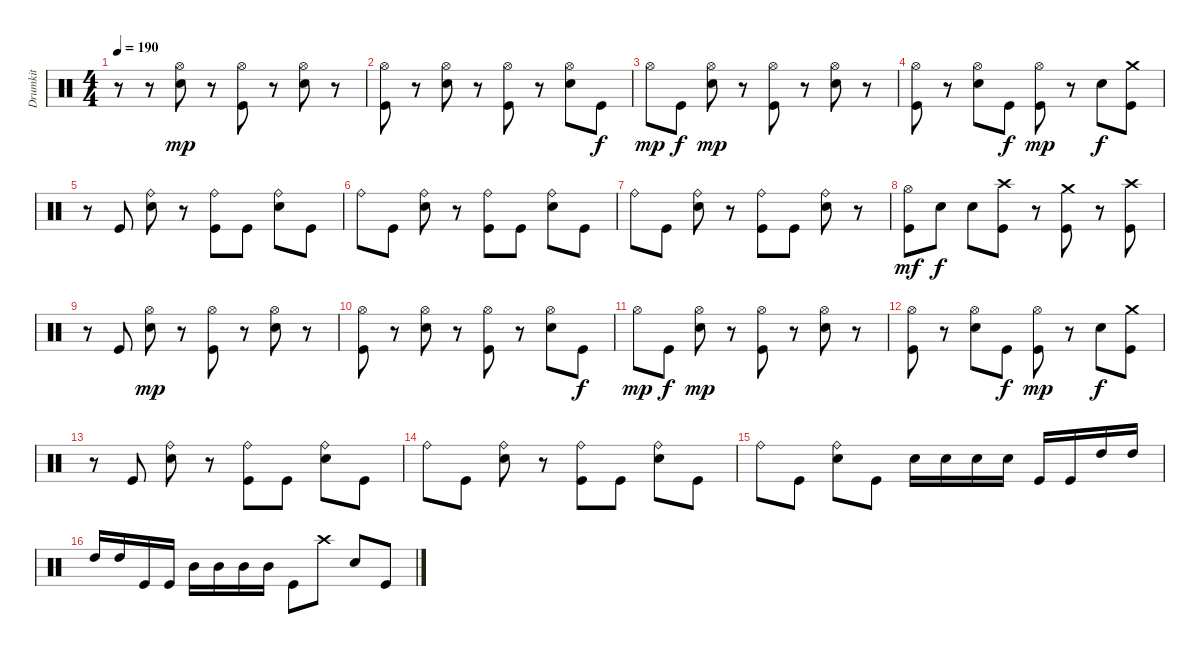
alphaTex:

\track ("Drumkit" "Drumkit") {instrument percussion}
\staff {score}
\articulation defaults
\ts (4 4)
\tempo 190
\clef neutral
\ks c
r.8{dy f} r.8 ("Hi-Hat (open)" "Snare (hit) 2").8{dy mp} r.8 ("Hi-Hat (open)" "Kick (hit)").8 r.8 ("Hi-Hat (open)" "Snare (hit) 2").8 r.8 |
("Hi-Hat (open)" "Kick (hit)").8 r.8 ("Hi-Hat (open)" "Snare (hit) 2").8 r.8 ("Hi-Hat (open)" "Kick (hit)").8 r.8 ("Hi-Hat (open)" "Snare (hit) 2").8 "Kick (hit)".8{dy f} |
"Hi-Hat (open)".8{dy mp} "Kick (hit)".8{dy f} ("Hi-Hat (open)" "Snare (hit) 2").8{dy mp} r.8 ("Hi-Hat (open)" "Kick (hit)").8 r.8 ("Hi-Hat (open)" "Snare (hit) 2").8 r.8 |
("Hi-Hat (open)" "Kick (hit)").8 r.8 ("Hi-Hat (open)" "Snare (hit) 2").8 "Kick (hit)".8{dy f} ("Hi-Hat (open)" "Kick (hit)").8{dy mp} r.8 "Snare (hit) 2".8{dy f} ("Crash medium (hit)" "Kick (hit)").8 |
r.8 "Kick (hit)".8 ("Ride (bell)" "Snare (hit) 2").8 r.8 ("Ride (bell)" "Kick (hit)").8 "Kick (hit)".8 ("Ride (bell)" "Snare (hit) 2").8 "Kick (hit)".8 |
"Ride (bell)".8 "Kick (hit)".8 ("Ride (bell)" "Snare (hit) 2").8 r.8 ("Ride (bell)" "Kick (hit)").8 "Kick (hit)".8 ("Ride (bell)" "Snare (hit) 2").8 "Kick (hit)".8 |
"Ride (bell)".8 "Kick (hit)".8 ("Ride (bell)" "Snare (hit) 2").8 r.8 ("Ride (bell)" "Kick (hit)").8 "Kick (hit)".8 ("Ride (bell)" "Snare (hit) 2").8 r.8 |
("Hi-Hat (open)" "Kick (hit)").8{dy mf} "Snare (hit) 2".8{dy f} "Snare (hit) 2".8 ("Crash high (hit)" "Kick (hit)").8 r.8 ("Crash medium (hit)" "Kick (hit)").8 r.8 ("Crash high (hit)" "Kick (hit)").8 |
r.8 "Kick (hit)".8 ("Hi-Hat (open)" "Snare (hit) 2").8{dy mp} r.8 ("Hi-Hat (open)" "Kick (hit)").8 r.8 ("Hi-Hat (open)" "Snare (hit) 2").8 r.8 |
("Hi-Hat (open)" "Kick (hit)").8 r.8 ("Hi-Hat (open)" "Snare (hit) 2").8 r.8 ("Hi-Hat (open)" "Kick (hit)").8 r.8 ("Hi-Hat (open)" "Snare (hit) 2").8 "Kick (hit)".8{dy f} |
"Hi-Hat (open)".8{dy mp} "Kick (hit)".8{dy f} ("Hi-Hat (open)" "Snare (hit) 2").8{dy mp} r.8 ("Hi-Hat (open)" "Kick (hit)").8 r.8 ("Hi-Hat (open)" "Snare (hit) 2").8 r.8 |
("Hi-Hat (open)" "Kick (hit)").8 r.8 ("Hi-Hat (open)" "Snare (hit) 2").8 "Kick (hit)".8{dy f} ("Hi-Hat (open)" "Kick (hit)").8{dy mp} r.8 "Snare (hit) 2".8{dy f} ("Crash medium (hit)" "Kick (hit)").8 |
r.8 "Kick (hit)".8 ("Ride (bell)" "Snare (hit) 2").8 r.8 ("Ride (bell)" "Kick (hit)").8 "Kick (hit)".8 ("Ride (bell)" "Snare (hit) 2").8 "Kick (hit)".8 |
"Ride (bell)".8 "Kick (hit)".8 ("Ride (bell)" "Snare (hit) 2").8 r.8 ("Ride (bell)" "Kick (hit)").8 "Kick (hit)".8 ("Ride (bell)" "Snare (hit) 2").8 "Kick (hit)".8 |
"Ride (bell)".8 "Kick (hit)".8 ("Ride (bell)" "Snare (hit) 2").8 "Kick (hit)".8 "Snare (hit) 2".16 "Snare (hit) 2".16 "Snare (hit) 2".16 "Snare (hit) 2".16 "Kick (hit)".16 "Kick (hit)".16 "High Tom (hit)".16 "High Tom (hit)".16 |
"High Tom (hit)".16 "High Tom (hit)".16 "Kick (hit)".16 "Kick (hit)".16 "Mid Tom (hit)".16 "Mid Tom (hit)".16 "Mid Tom (hit)".16 "Mid Tom (hit)".16 "Kick (hit)".8 "Crash high (hit)".8 "Snare (hit) 2".8 "Kick (hit)".8
